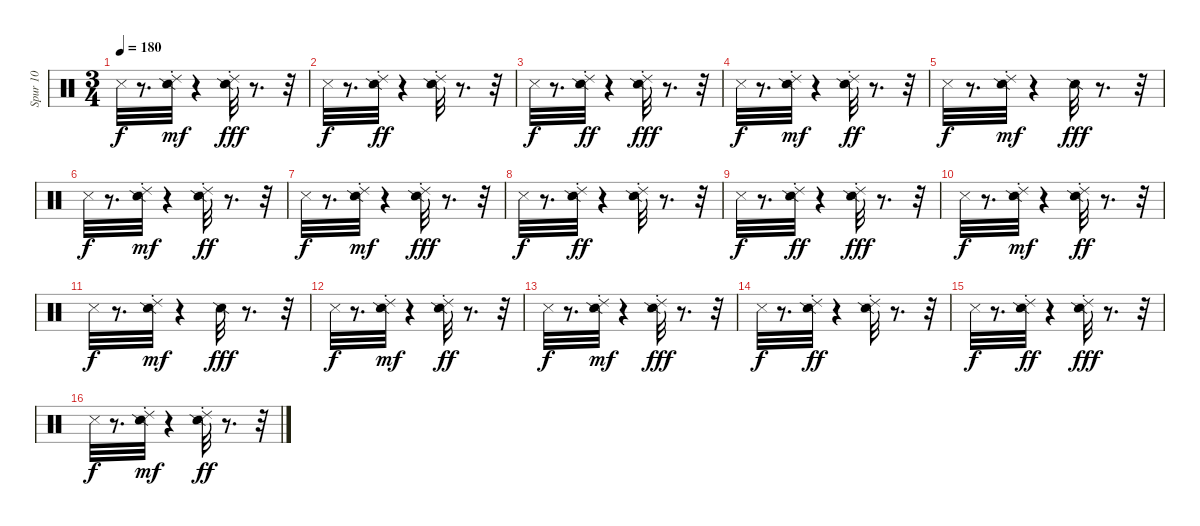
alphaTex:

\track ("Spur 10" "Spur 10") {instrument percussion}
\staff {score}
\articulation defaults
\ts (3 4)
\tempo 180
\clef neutral
\ks c "Metronome (hit)".32{dy f}
r.8{d} ("Ride (choke) 2" "Snare (side stick) 2").32{dy mf} r.4 ("Ride (choke) 2" "Snare (side stick) 2").32{dy fff} r.8{d} r.32 |
"Metronome (hit)".32{dy f} r.8{d} ("Ride (choke) 2" "Snare (side stick) 2").32{dy ff} r.4 ("Ride (choke) 2" "Snare (side stick) 2").32 r.8{d} r.32 |
"Metronome (hit)".32{dy f} r.8{d} ("Ride (choke) 2" "Snare (side stick) 2").32{dy ff} r.4 ("Ride (choke) 2" "Snare (side stick) 2").32{dy fff} r.8{d} r.32 |
"Metronome (hit)".32{dy f} r.8{d} ("Ride (choke) 2" "Snare (side stick) 2").32{dy mf} r.4 ("Ride (choke) 2" "Snare (side stick) 2").32{dy ff} r.8{d} r.32 |
"Metronome (hit)".32{dy f} r.8{d} ("Ride (choke) 2" "Snare (side stick) 2").32{dy mf} r.4 "Snare (side stick) 2".32{dy fff} r.8{d} r.32 |
"Metronome (hit)".32{dy f} r.8{d} ("Ride (choke) 2" "Snare (side stick) 2").32{dy mf} r.4 ("Ride (choke) 2" "Snare (side stick) 2").32{dy ff} r.8{d} r.32 |
"Metronome (hit)".32{dy f} r.8{d} ("Ride (choke) 2" "Snare (side stick) 2").32{dy mf} r.4 ("Ride (choke) 2" "Snare (side stick) 2").32{dy fff} r.8{d} r.32 |
"Metronome (hit)".32{dy f} r.8{d} ("Ride (choke) 2" "Snare (side stick) 2").32{dy ff} r.4 ("Ride (choke) 2" "Snare (side stick) 2").32 r.8{d} r.32 |
"Metronome (hit)".32{dy f} r.8{d} ("Ride (choke) 2" "Snare (side stick) 2").32{dy ff} r.4 ("Ride (choke) 2" "Snare (side stick) 2").32{dy fff} r.8{d} r.32 |
"Metronome (hit)".32{dy f} r.8{d} ("Ride (choke) 2" "Snare (side stick) 2").32{dy mf} r.4 ("Ride (choke) 2" "Snare (side stick) 2").32{dy ff} r.8{d} r.32 |
"Metronome (hit)".32{dy f} r.8{d} ("Ride (choke) 2" "Snare (side stick) 2").32{dy mf} r.4 "Snare (side stick) 2".32{dy fff} r.8{d} r.32 |
"Metronome (hit)".32{dy f} r.8{d} ("Ride (choke) 2" "Snare (side stick) 2").32{dy mf} r.4 ("Ride (choke) 2" "Snare (side stick) 2").32{dy ff} r.8{d} r.32 |
"Metronome (hit)".32{dy f} r.8{d} ("Ride (choke) 2" "Snare (side stick) 2").32{dy mf} r.4 ("Ride (choke) 2" "Snare (side stick) 2").32{dy fff} r.8{d} r.32 |
"Metronome (hit)".32{dy f} r.8{d} ("Ride (choke) 2" "Snare (side stick) 2").32{dy ff} r.4 ("Ride (choke) 2" "Snare (side stick) 2").32 r.8{d} r.32 |
"Metronome (hit)".32{dy f} r.8{d} ("Ride (choke) 2" "Snare (side stick) 2").32{dy ff} r.4 ("Ride (choke) 2" "Snare (side stick) 2").32{dy fff} r.8{d} r.32 |
"Metronome (hit)".32{dy f} r.8{d} ("Ride (choke) 2" "Snare (side stick) 2").32{dy mf} r.4 ("Ride (choke) 2" "Snare (side stick) 2").32{dy ff} r.8{d} r.32
